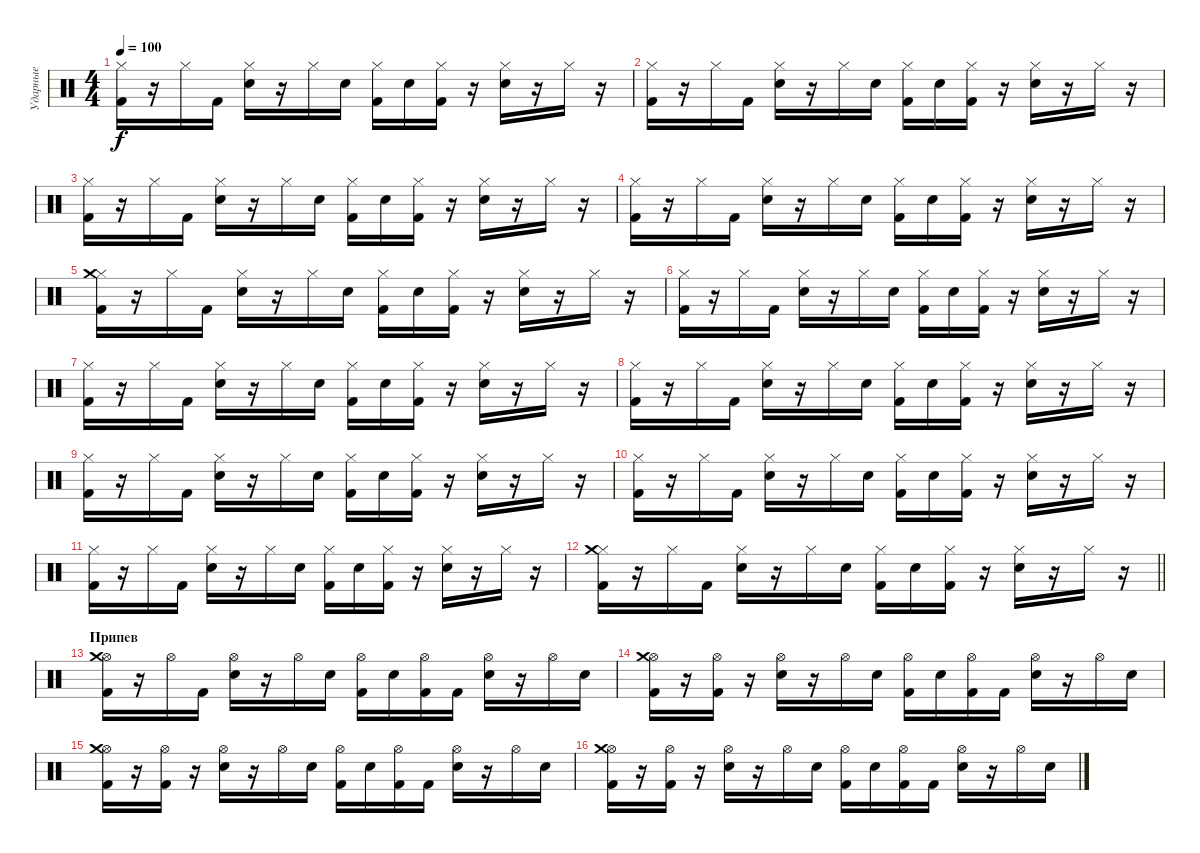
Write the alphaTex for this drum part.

\track ("Ударные" "Ударные") {instrument percussion}
\staff {score}
\articulation defaults
\ts (4 4)
\tempo 100
\clef neutral
\ks c
("Hi-Hat (closed)" "Kick (hit) 2").16{dy f} r.16 "Hi-Hat (closed)".16 "Kick (hit) 2".16 ("Hi-Hat (closed)" "Electric Snare (hit)").16 r.16 "Hi-Hat (closed)".16 "Electric Snare (hit)".16 ("Hi-Hat (closed)" "Kick (hit) 2").16 "Electric Snare (hit)".16 ("Hi-Hat (closed)" "Kick (hit) 2").16 r.16 ("Hi-Hat (closed)" "Electric Snare (hit)").16 r.16 "Hi-Hat (closed)".16 r.16 |
("Hi-Hat (closed)" "Kick (hit) 2").16 r.16 "Hi-Hat (closed)".16 "Kick (hit) 2".16 ("Hi-Hat (closed)" "Electric Snare (hit)").16 r.16 "Hi-Hat (closed)".16 "Electric Snare (hit)".16 ("Hi-Hat (closed)" "Kick (hit) 2").16 "Electric Snare (hit)".16 ("Hi-Hat (closed)" "Kick (hit) 2").16 r.16 ("Hi-Hat (closed)" "Electric Snare (hit)").16 r.16 "Hi-Hat (closed)".16 r.16 |
("Hi-Hat (closed)" "Kick (hit) 2").16 r.16 "Hi-Hat (closed)".16 "Kick (hit) 2".16 ("Hi-Hat (closed)" "Electric Snare (hit)").16 r.16 "Hi-Hat (closed)".16 "Electric Snare (hit)".16 ("Hi-Hat (closed)" "Kick (hit) 2").16 "Electric Snare (hit)".16 ("Hi-Hat (closed)" "Kick (hit) 2").16 r.16 ("Hi-Hat (closed)" "Electric Snare (hit)").16 r.16 "Hi-Hat (closed)".16 r.16 |
("Hi-Hat (closed)" "Kick (hit) 2").16 r.16 "Hi-Hat (closed)".16 "Kick (hit) 2".16 ("Hi-Hat (closed)" "Electric Snare (hit)").16 r.16 "Hi-Hat (closed)".16 "Electric Snare (hit)".16 ("Hi-Hat (closed)" "Kick (hit) 2").16 "Electric Snare (hit)".16 ("Hi-Hat (closed)" "Kick (hit) 2").16 r.16 ("Hi-Hat (closed)" "Electric Snare (hit)").16 r.16 "Hi-Hat (closed)".16 r.16 |
("Hi-Hat (closed)" "Kick (hit) 2" "Crash medium (hit)").16 r.16 "Hi-Hat (closed)".16 "Kick (hit) 2".16 ("Hi-Hat (closed)" "Electric Snare (hit)").16 r.16 "Hi-Hat (closed)".16 "Electric Snare (hit)".16 ("Hi-Hat (closed)" "Kick (hit) 2").16 "Electric Snare (hit)".16 ("Hi-Hat (closed)" "Kick (hit) 2").16 r.16 ("Hi-Hat (closed)" "Electric Snare (hit)").16 r.16 "Hi-Hat (closed)".16 r.16 |
("Hi-Hat (closed)" "Kick (hit) 2").16 r.16 "Hi-Hat (closed)".16 "Kick (hit) 2".16 ("Hi-Hat (closed)" "Electric Snare (hit)").16 r.16 "Hi-Hat (closed)".16 "Electric Snare (hit)".16 ("Hi-Hat (closed)" "Kick (hit) 2").16 "Electric Snare (hit)".16 ("Hi-Hat (closed)" "Kick (hit) 2").16 r.16 ("Hi-Hat (closed)" "Electric Snare (hit)").16 r.16 "Hi-Hat (closed)".16 r.16 |
("Hi-Hat (closed)" "Kick (hit) 2").16 r.16 "Hi-Hat (closed)".16 "Kick (hit) 2".16 ("Hi-Hat (closed)" "Electric Snare (hit)").16 r.16 "Hi-Hat (closed)".16 "Electric Snare (hit)".16 ("Hi-Hat (closed)" "Kick (hit) 2").16 "Electric Snare (hit)".16 ("Hi-Hat (closed)" "Kick (hit) 2").16 r.16 ("Hi-Hat (closed)" "Electric Snare (hit)").16 r.16 "Hi-Hat (closed)".16 r.16 |
("Hi-Hat (closed)" "Kick (hit) 2").16 r.16 "Hi-Hat (closed)".16 "Kick (hit) 2".16 ("Hi-Hat (closed)" "Electric Snare (hit)").16 r.16 "Hi-Hat (closed)".16 "Electric Snare (hit)".16 ("Hi-Hat (closed)" "Kick (hit) 2").16 "Electric Snare (hit)".16 ("Hi-Hat (closed)" "Kick (hit) 2").16 r.16 ("Hi-Hat (closed)" "Electric Snare (hit)").16 r.16 "Hi-Hat (closed)".16 r.16 |
("Hi-Hat (closed)" "Kick (hit) 2").16 r.16 "Hi-Hat (closed)".16 "Kick (hit) 2".16 ("Hi-Hat (closed)" "Electric Snare (hit)").16 r.16 "Hi-Hat (closed)".16 "Electric Snare (hit)".16 ("Hi-Hat (closed)" "Kick (hit) 2").16 "Electric Snare (hit)".16 ("Hi-Hat (closed)" "Kick (hit) 2").16 r.16 ("Hi-Hat (closed)" "Electric Snare (hit)").16 r.16 "Hi-Hat (closed)".16 r.16 |
("Hi-Hat (closed)" "Kick (hit) 2").16 r.16 "Hi-Hat (closed)".16 "Kick (hit) 2".16 ("Hi-Hat (closed)" "Electric Snare (hit)").16 r.16 "Hi-Hat (closed)".16 "Electric Snare (hit)".16 ("Hi-Hat (closed)" "Kick (hit) 2").16 "Electric Snare (hit)".16 ("Hi-Hat (closed)" "Kick (hit) 2").16 r.16 ("Hi-Hat (closed)" "Electric Snare (hit)").16 r.16 "Hi-Hat (closed)".16 r.16 |
("Hi-Hat (closed)" "Kick (hit) 2").16 r.16 "Hi-Hat (closed)".16 "Kick (hit) 2".16 ("Hi-Hat (closed)" "Electric Snare (hit)").16 r.16 "Hi-Hat (closed)".16 "Electric Snare (hit)".16 ("Hi-Hat (closed)" "Kick (hit) 2").16 "Electric Snare (hit)".16 ("Hi-Hat (closed)" "Kick (hit) 2").16 r.16 ("Hi-Hat (closed)" "Electric Snare (hit)").16 r.16 "Hi-Hat (closed)".16 r.16 |
\barLineRight lightlight
("Hi-Hat (closed)" "Kick (hit) 2" "Crash medium (hit)").16 r.16 "Hi-Hat (closed)".16 "Kick (hit) 2".16 ("Hi-Hat (closed)" "Electric Snare (hit)").16 r.16 "Hi-Hat (closed)".16 "Electric Snare (hit)".16 ("Hi-Hat (closed)" "Kick (hit) 2").16 "Electric Snare (hit)".16 ("Hi-Hat (closed)" "Kick (hit) 2").16 r.16 ("Hi-Hat (closed)" "Electric Snare (hit)").16 r.16 "Hi-Hat (closed)".16 r.16 |
\section ("" "Припев")
("Hi-Hat (open)" "Kick (hit) 2" "Crash medium (hit)").16 r.16 "Hi-Hat (open)".16 "Kick (hit) 2".16 ("Hi-Hat (open)" "Electric Snare (hit)").16 r.16 "Hi-Hat (open)".16 "Electric Snare (hit)".16 ("Hi-Hat (open)" "Kick (hit) 2").16 "Electric Snare (hit)".16 ("Hi-Hat (open)" "Kick (hit) 2").16 "Kick (hit) 2".16 ("Hi-Hat (open)" "Electric Snare (hit)").16 r.16 "Hi-Hat (open)".16 "Electric Snare (hit)".16 |
("Hi-Hat (open)" "Kick (hit) 2" "Crash medium (hit)").16 r.16 ("Hi-Hat (open)" "Kick (hit) 2").16 r.16 ("Hi-Hat (open)" "Electric Snare (hit)").16 r.16 "Hi-Hat (open)".16 "Electric Snare (hit)".16 ("Hi-Hat (open)" "Kick (hit) 2").16 "Electric Snare (hit)".16 ("Hi-Hat (open)" "Kick (hit) 2").16 "Kick (hit) 2".16 ("Hi-Hat (open)" "Electric Snare (hit)").16 r.16 "Hi-Hat (open)".16 "Electric Snare (hit)".16 |
("Hi-Hat (open)" "Kick (hit) 2" "Crash medium (hit)").16 r.16 ("Hi-Hat (open)" "Kick (hit) 2").16 r.16 ("Hi-Hat (open)" "Electric Snare (hit)").16 r.16 "Hi-Hat (open)".16 "Electric Snare (hit)".16 ("Hi-Hat (open)" "Kick (hit) 2").16 "Electric Snare (hit)".16 ("Hi-Hat (open)" "Kick (hit) 2").16 "Kick (hit) 2".16 ("Hi-Hat (open)" "Electric Snare (hit)").16 r.16 "Hi-Hat (open)".16 "Electric Snare (hit)".16 |
("Hi-Hat (open)" "Kick (hit) 2" "Crash medium (hit)").16 r.16 ("Hi-Hat (open)" "Kick (hit) 2").16 r.16 ("Hi-Hat (open)" "Electric Snare (hit)").16 r.16 "Hi-Hat (open)".16 "Electric Snare (hit)".16 ("Hi-Hat (open)" "Kick (hit) 2").16 "Electric Snare (hit)".16 ("Hi-Hat (open)" "Kick (hit) 2").16 "Kick (hit) 2".16 ("Hi-Hat (open)" "Electric Snare (hit)").16 r.16 "Hi-Hat (open)".16 "Electric Snare (hit)".16
